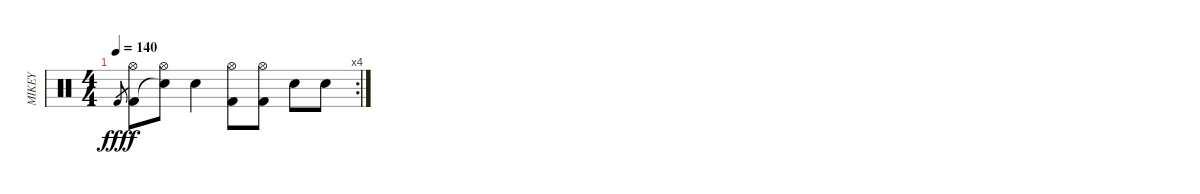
\track ("MIKEY" "MIKEY") {instrument percussion}
\staff {score}
\articulation defaults
\rc 4
\ts (4 4)
\tempo 140
\clef neutral
\ks c "Kick (hit) 2".8{gr dy fff}
("Hi-Hat (open)" "Kick (hit) 2").8{dy f} ("Hi-Hat (open)" "Snare (hit)"{t}).8 "Electric Snare (hit)".4 ("Hi-Hat (open)" "Kick (hit) 2").8 ("Hi-Hat (open)" "Kick (hit) 2").8 "Electric Snare (hit)".8 "Electric Snare (hit)".8
